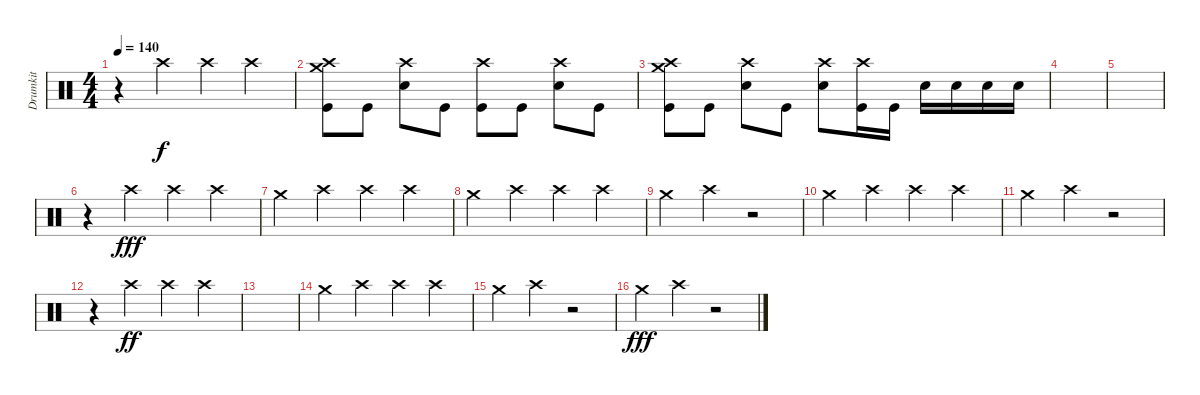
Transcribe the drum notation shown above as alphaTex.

\track ("Drumkit" "Drumkit") {instrument percussion}
\staff {score}
\articulation defaults
\ts (4 4)
\tempo 140
\clef neutral
\ks c
r.4{dy f} "Crash high (hit)".4 "Crash high (hit)".4 "Crash high (hit)".4 |
("Crash high (hit)" "Crash medium (hit)" "Kick (hit)").8 "Kick (hit)".8 ("Snare (hit) 2" "Crash high (hit)").8 "Kick (hit)".8 ("Kick (hit)" "Crash high (hit)").8 "Kick (hit)".8 ("Snare (hit) 2" "Crash high (hit)").8 "Kick (hit)".8 |
("Crash high (hit)" "Crash medium (hit)" "Kick (hit)").8 "Kick (hit)".8 ("Snare (hit) 2" "Crash high (hit)").8 "Kick (hit)".8 ("Crash high (hit)" "Snare (hit) 2").8 ("Crash high (hit)" "Kick (hit)").16 "Kick (hit)".16 "Snare (hit) 2".16 "Snare (hit) 2".16 "Snare (hit) 2".16 "Snare (hit) 2".16 |
|
|
r.4 "Crash high (hit)".4{dy fff} "Crash high (hit)".4 "Crash high (hit)".4 |
"Crash medium (hit)".4 "Crash high (hit)".4 "Crash high (hit)".4 "Crash high (hit)".4 |
"Crash medium (hit)".4 "Crash high (hit)".4 "Crash high (hit)".4 "Crash high (hit)".4 |
"Crash medium (hit)".4 "Crash high (hit)".4 r.2 |
"Crash medium (hit)".4 "Crash high (hit)".4 "Crash high (hit)".4 "Crash high (hit)".4 |
"Crash medium (hit)".4 "Crash high (hit)".4 r.2 |
r.4 "Crash high (hit)".4{dy ff} "Crash high (hit)".4 "Crash high (hit)".4 |
|
"Crash medium (hit)".4 "Crash high (hit)".4 "Crash high (hit)".4 "Crash high (hit)".4 |
"Crash medium (hit)".4 "Crash high (hit)".4 r.2 |
"Crash medium (hit)".4{dy fff} "Crash high (hit)".4 r.2
